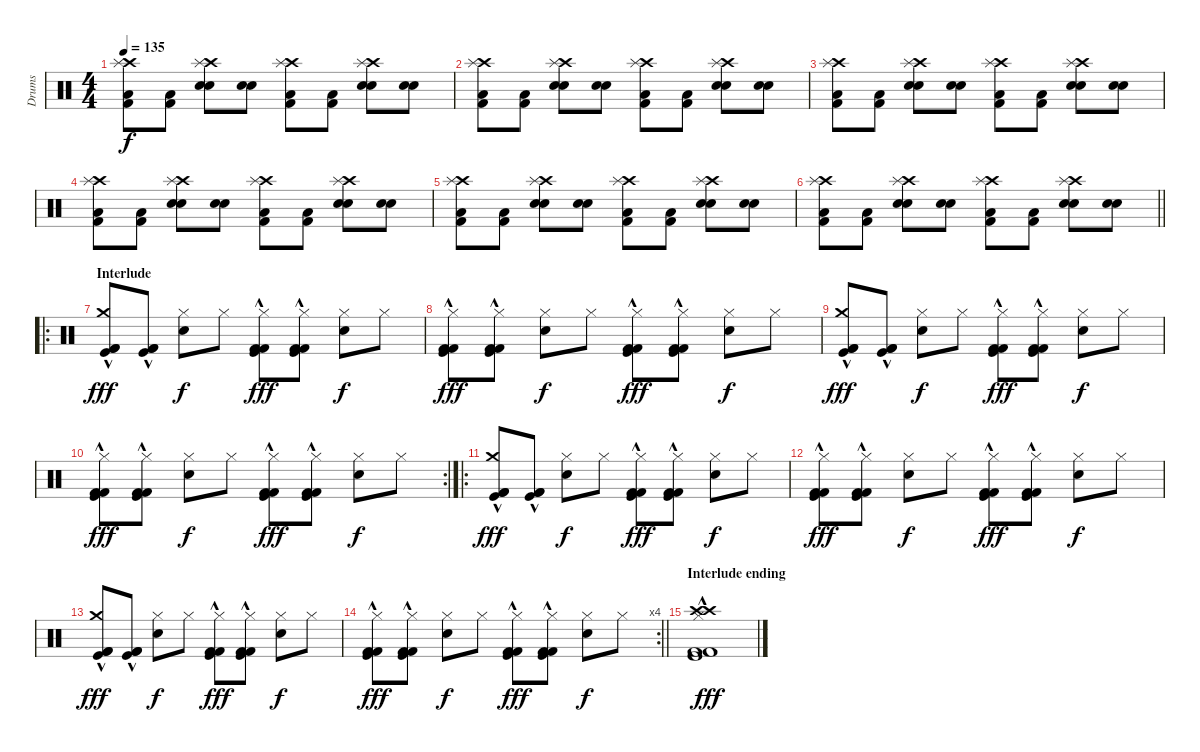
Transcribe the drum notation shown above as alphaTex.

\track ("Drums" "Drums") {instrument percussion}
\staff {score}
\articulation defaults
\ts (4 4)
\tempo 135
\clef neutral
\ks c
("Crash high (hit)" "Splash (hit)" "Kick (hit) 2" "Low Floor Tom (hit)").8{dy f} ("Kick (hit) 2" "Low Floor Tom (hit)").8 ("Crash high (hit)" "Splash (hit)" "Electric Snare (hit)" "Electric Snare (hit)").8 ("Electric Snare (hit)" "Electric Snare (hit)").8 ("Crash high (hit)" "Splash (hit)" "Kick (hit) 2" "Low Floor Tom (hit)").8 ("Kick (hit) 2" "Low Floor Tom (hit)").8 ("Crash high (hit)" "Splash (hit)" "Electric Snare (hit)" "Electric Snare (hit)").8 ("Electric Snare (hit)" "Electric Snare (hit)").8 |
("Crash high (hit)" "Splash (hit)" "Kick (hit) 2" "Low Floor Tom (hit)").8 ("Kick (hit) 2" "Low Floor Tom (hit)").8 ("Crash high (hit)" "Splash (hit)" "Electric Snare (hit)" "Electric Snare (hit)").8 ("Electric Snare (hit)" "Electric Snare (hit)").8 ("Crash high (hit)" "Splash (hit)" "Kick (hit) 2" "Low Floor Tom (hit)").8 ("Kick (hit) 2" "Low Floor Tom (hit)").8 ("Crash high (hit)" "Splash (hit)" "Electric Snare (hit)" "Electric Snare (hit)").8 ("Electric Snare (hit)" "Electric Snare (hit)").8 |
("Crash high (hit)" "Splash (hit)" "Kick (hit) 2" "Low Floor Tom (hit)").8 ("Kick (hit) 2" "Low Floor Tom (hit)").8 ("Crash high (hit)" "Splash (hit)" "Electric Snare (hit)" "Electric Snare (hit)").8 ("Electric Snare (hit)" "Electric Snare (hit)").8 ("Crash high (hit)" "Splash (hit)" "Kick (hit) 2" "Low Floor Tom (hit)").8 ("Kick (hit) 2" "Low Floor Tom (hit)").8 ("Crash high (hit)" "Splash (hit)" "Electric Snare (hit)" "Electric Snare (hit)").8 ("Electric Snare (hit)" "Electric Snare (hit)").8 |
("Crash high (hit)" "Splash (hit)" "Kick (hit) 2" "Low Floor Tom (hit)").8 ("Kick (hit) 2" "Low Floor Tom (hit)").8 ("Crash high (hit)" "Splash (hit)" "Electric Snare (hit)" "Electric Snare (hit)").8 ("Electric Snare (hit)" "Electric Snare (hit)").8 ("Crash high (hit)" "Splash (hit)" "Kick (hit) 2" "Low Floor Tom (hit)").8 ("Kick (hit) 2" "Low Floor Tom (hit)").8 ("Crash high (hit)" "Splash (hit)" "Electric Snare (hit)" "Electric Snare (hit)").8 ("Electric Snare (hit)" "Electric Snare (hit)").8 |
("Crash high (hit)" "Splash (hit)" "Kick (hit) 2" "Low Floor Tom (hit)").8 ("Kick (hit) 2" "Low Floor Tom (hit)").8 ("Crash high (hit)" "Splash (hit)" "Electric Snare (hit)" "Electric Snare (hit)").8 ("Electric Snare (hit)" "Electric Snare (hit)").8 ("Crash high (hit)" "Splash (hit)" "Kick (hit) 2" "Low Floor Tom (hit)").8 ("Kick (hit) 2" "Low Floor Tom (hit)").8 ("Crash high (hit)" "Splash (hit)" "Electric Snare (hit)" "Electric Snare (hit)").8 ("Electric Snare (hit)" "Electric Snare (hit)").8 |
\barLineRight lightlight
("Crash high (hit)" "Splash (hit)" "Kick (hit) 2" "Low Floor Tom (hit)").8 ("Kick (hit) 2" "Low Floor Tom (hit)").8 ("Crash high (hit)" "Splash (hit)" "Electric Snare (hit)" "Electric Snare (hit)").8 ("Electric Snare (hit)" "Electric Snare (hit)").8 ("Crash high (hit)" "Splash (hit)" "Kick (hit) 2" "Low Floor Tom (hit)").8 ("Kick (hit) 2" "Low Floor Tom (hit)").8 ("Crash high (hit)" "Splash (hit)" "Electric Snare (hit)" "Electric Snare (hit)").8 ("Electric Snare (hit)" "Electric Snare (hit)").8 |
\ro
\section ("" "Interlude")
("Kick (hit) 2" "Crash medium (hit)" "Kick (hit) 2"{hac} "Kick (hit)"{hac}).8{dy fff} ("Kick (hit) 2" "Kick (hit) 2"{hac} "Kick (hit)"{hac}).8 ("Hi-Hat (closed)" "Electric Snare (hit)").8{dy f} "Hi-Hat (closed)".8 ("Kick (hit) 2" "Hi-Hat (closed)" "Kick (hit)"{hac} "Kick (hit) 2"{hac}).8{dy fff} ("Kick (hit) 2" "Hi-Hat (closed)" "Kick (hit)"{hac} "Kick (hit) 2"{hac}).8 ("Hi-Hat (closed)" "Electric Snare (hit)").8{dy f} "Hi-Hat (closed)".8 |
("Kick (hit) 2" "Hi-Hat (closed)" "Kick (hit)"{hac} "Kick (hit) 2"{hac}).8{dy fff} ("Kick (hit) 2" "Hi-Hat (closed)" "Kick (hit)"{hac} "Kick (hit) 2"{hac}).8 ("Hi-Hat (closed)" "Electric Snare (hit)").8{dy f} "Hi-Hat (closed)".8 ("Kick (hit) 2" "Hi-Hat (closed)" "Kick (hit)"{hac} "Kick (hit) 2"{hac}).8{dy fff} ("Kick (hit) 2" "Hi-Hat (closed)" "Kick (hit)"{hac} "Kick (hit) 2"{hac}).8 ("Hi-Hat (closed)" "Electric Snare (hit)").8{dy f} "Hi-Hat (closed)".8 |
("Kick (hit) 2" "Crash medium (hit)" "Kick (hit) 2"{hac} "Kick (hit)"{hac}).8{dy fff} ("Kick (hit) 2" "Kick (hit) 2"{hac} "Kick (hit)"{hac}).8 ("Hi-Hat (closed)" "Electric Snare (hit)").8{dy f} "Hi-Hat (closed)".8 ("Kick (hit) 2" "Hi-Hat (closed)" "Kick (hit)"{hac} "Kick (hit) 2"{hac}).8{dy fff} ("Kick (hit) 2" "Hi-Hat (closed)" "Kick (hit)"{hac} "Kick (hit) 2"{hac}).8 ("Hi-Hat (closed)" "Electric Snare (hit)").8{dy f} "Hi-Hat (closed)".8 |
\rc 2
("Kick (hit) 2" "Hi-Hat (closed)" "Kick (hit)"{hac} "Kick (hit) 2"{hac}).8{dy fff} ("Kick (hit) 2" "Hi-Hat (closed)" "Kick (hit)"{hac} "Kick (hit) 2"{hac}).8 ("Hi-Hat (closed)" "Electric Snare (hit)").8{dy f} "Hi-Hat (closed)".8 ("Kick (hit) 2" "Hi-Hat (closed)" "Kick (hit)"{hac} "Kick (hit) 2"{hac}).8{dy fff} ("Kick (hit) 2" "Hi-Hat (closed)" "Kick (hit)"{hac} "Kick (hit) 2"{hac}).8 ("Hi-Hat (closed)" "Electric Snare (hit)").8{dy f} "Hi-Hat (closed)".8 |
\ro
("Kick (hit) 2" "Crash medium (hit)" "Kick (hit) 2"{hac} "Kick (hit)"{hac}).8{dy fff} ("Kick (hit) 2" "Kick (hit) 2"{hac} "Kick (hit)"{hac}).8 ("Hi-Hat (closed)" "Electric Snare (hit)").8{dy f} "Hi-Hat (closed)".8 ("Kick (hit) 2" "Hi-Hat (closed)" "Kick (hit)"{hac} "Kick (hit) 2"{hac}).8{dy fff} ("Kick (hit) 2" "Hi-Hat (closed)" "Kick (hit)"{hac} "Kick (hit) 2"{hac}).8 ("Hi-Hat (closed)" "Electric Snare (hit)").8{dy f} "Hi-Hat (closed)".8 |
("Kick (hit) 2" "Hi-Hat (closed)" "Kick (hit)"{hac} "Kick (hit) 2"{hac}).8{dy fff} ("Kick (hit) 2" "Hi-Hat (closed)" "Kick (hit)"{hac} "Kick (hit) 2"{hac}).8 ("Hi-Hat (closed)" "Electric Snare (hit)").8{dy f} "Hi-Hat (closed)".8 ("Kick (hit) 2" "Hi-Hat (closed)" "Kick (hit)"{hac} "Kick (hit) 2"{hac}).8{dy fff} ("Kick (hit) 2" "Hi-Hat (closed)" "Kick (hit)"{hac} "Kick (hit) 2"{hac}).8 ("Hi-Hat (closed)" "Electric Snare (hit)").8{dy f} "Hi-Hat (closed)".8 |
("Kick (hit) 2" "Crash medium (hit)" "Kick (hit) 2"{hac} "Kick (hit)"{hac}).8{dy fff} ("Kick (hit) 2" "Kick (hit) 2"{hac} "Kick (hit)"{hac}).8 ("Hi-Hat (closed)" "Electric Snare (hit)").8{dy f} "Hi-Hat (closed)".8 ("Kick (hit) 2" "Hi-Hat (closed)" "Kick (hit)"{hac} "Kick (hit) 2"{hac}).8{dy fff} ("Kick (hit) 2" "Hi-Hat (closed)" "Kick (hit)"{hac} "Kick (hit) 2"{hac}).8 ("Hi-Hat (closed)" "Electric Snare (hit)").8{dy f} "Hi-Hat (closed)".8 |
\rc 4
\barLineRight lightlight
("Kick (hit) 2" "Hi-Hat (closed)" "Kick (hit)"{hac} "Kick (hit) 2"{hac}).8{dy fff} ("Kick (hit) 2" "Hi-Hat (closed)" "Kick (hit)"{hac} "Kick (hit) 2"{hac}).8 ("Hi-Hat (closed)" "Electric Snare (hit)").8{dy f} "Hi-Hat (closed)".8 ("Kick (hit) 2" "Hi-Hat (closed)" "Kick (hit)"{hac} "Kick (hit) 2"{hac}).8{dy fff} ("Kick (hit) 2" "Hi-Hat (closed)" "Kick (hit)"{hac} "Kick (hit) 2"{hac}).8 ("Hi-Hat (closed)" "Electric Snare (hit)").8{dy f} "Hi-Hat (closed)".8 |
\section ("" "Interlude ending")
("Crash high (hit)" "Crash high (hit)" "Kick (hit) 2" "Hi-Hat (closed)" "Kick (hit)"{hac} "Kick (hit) 2"{hac}).1{dy fff}
